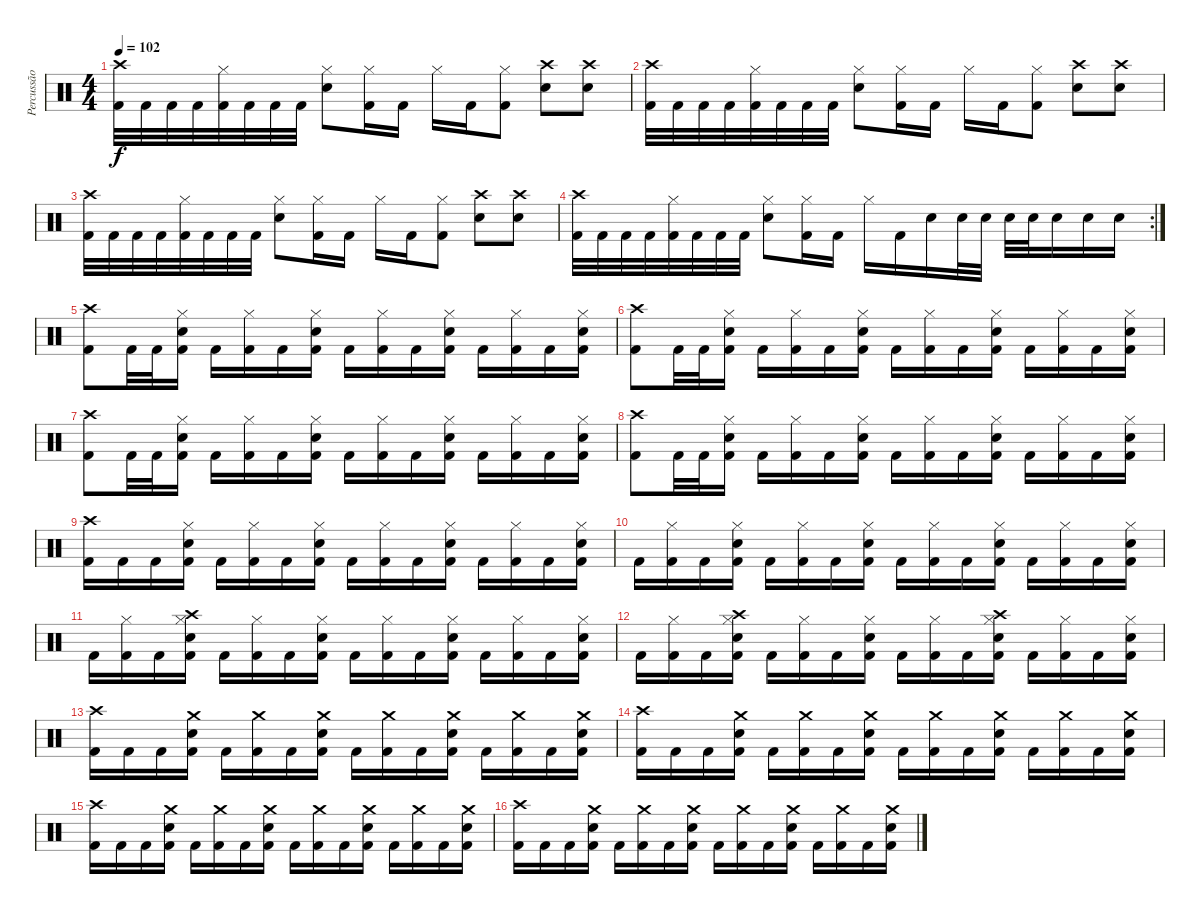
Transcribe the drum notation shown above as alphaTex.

\track ("Percussão" "Percussão") {instrument percussion}
\staff {score}
\articulation defaults
\ts (4 4)
\section ("" "")
\tempo 102
\clef neutral
\ks c
("Crash high (hit)" "Kick (hit) 2").32{dy f} "Kick (hit) 2".32 "Kick (hit) 2".32 "Kick (hit) 2".32 ("Hi-Hat (closed)" "Kick (hit) 2").32 "Kick (hit) 2".32 "Kick (hit) 2".32 "Kick (hit) 2".32 ("Hi-Hat (closed)" "Electric Snare (hit)").8 ("Hi-Hat (closed)" "Kick (hit) 2").16 "Kick (hit) 2".16 "Hi-Hat (closed)".16 "Kick (hit) 2".16 ("Hi-Hat (closed)" "Kick (hit) 2").8 ("Electric Snare (hit)" "Crash high (hit)").8 ("Crash high (hit)" "Electric Snare (hit)").8 |
\section ("" "")
("Crash high (hit)" "Kick (hit) 2").32 "Kick (hit) 2".32 "Kick (hit) 2".32 "Kick (hit) 2".32 ("Hi-Hat (closed)" "Kick (hit) 2").32 "Kick (hit) 2".32 "Kick (hit) 2".32 "Kick (hit) 2".32 ("Hi-Hat (closed)" "Electric Snare (hit)").8 ("Hi-Hat (closed)" "Kick (hit) 2").16 "Kick (hit) 2".16 "Hi-Hat (closed)".16 "Kick (hit) 2".16 ("Hi-Hat (closed)" "Kick (hit) 2").8 ("Electric Snare (hit)" "Crash high (hit)").8 ("Crash high (hit)" "Electric Snare (hit)").8 |
("Crash high (hit)" "Kick (hit) 2").32 "Kick (hit) 2".32 "Kick (hit) 2".32 "Kick (hit) 2".32 ("Hi-Hat (closed)" "Kick (hit) 2").32 "Kick (hit) 2".32 "Kick (hit) 2".32 "Kick (hit) 2".32 ("Hi-Hat (closed)" "Electric Snare (hit)").8 ("Hi-Hat (closed)" "Kick (hit) 2").16 "Kick (hit) 2".16 "Hi-Hat (closed)".16 "Kick (hit) 2".16 ("Hi-Hat (closed)" "Kick (hit) 2").8 ("Electric Snare (hit)" "Crash high (hit)").8 ("Crash high (hit)" "Electric Snare (hit)").8 |
\rc 2
("Crash high (hit)" "Kick (hit) 2").32 "Kick (hit) 2".32 "Kick (hit) 2".32 "Kick (hit) 2".32 ("Hi-Hat (closed)" "Kick (hit) 2").32 "Kick (hit) 2".32 "Kick (hit) 2".32 "Kick (hit) 2".32 ("Hi-Hat (closed)" "Electric Snare (hit)").8 ("Hi-Hat (closed)" "Kick (hit) 2").16 "Kick (hit) 2".16 "Hi-Hat (closed)".16 "Kick (hit) 2".16 "Snare (hit) 2".16 "Snare (hit) 2".32 "Snare (hit) 2".32 "Snare (hit) 2".32 "Snare (hit) 2".32 "Snare (hit) 2".16 "Snare (hit) 2".16 "Snare (hit) 2".16 |
\section ("" "")
("Crash high (hit)" "Kick (hit) 2").8 "Kick (hit) 2".32 "Kick (hit) 2".32 ("Hi-Hat (closed)" "Electric Snare (hit)" "Kick (hit) 2").16 "Kick (hit) 2".16 ("Hi-Hat (closed)" "Kick (hit) 2").16 "Kick (hit) 2".16 ("Hi-Hat (closed)" "Electric Snare (hit)" "Kick (hit) 2").16 "Kick (hit) 2".16 ("Hi-Hat (closed)" "Kick (hit) 2").16 "Kick (hit) 2".16 ("Hi-Hat (closed)" "Electric Snare (hit)" "Kick (hit) 2").16 "Kick (hit) 2".16 ("Hi-Hat (closed)" "Kick (hit) 2").16 "Kick (hit) 2".16 ("Hi-Hat (closed)" "Electric Snare (hit)" "Kick (hit) 2").16 |
("Crash high (hit)" "Kick (hit) 2").8 "Kick (hit) 2".32 "Kick (hit) 2".32 ("Hi-Hat (closed)" "Electric Snare (hit)" "Kick (hit) 2").16 "Kick (hit) 2".16 ("Hi-Hat (closed)" "Kick (hit) 2").16 "Kick (hit) 2".16 ("Hi-Hat (closed)" "Electric Snare (hit)" "Kick (hit) 2").16 "Kick (hit) 2".16 ("Hi-Hat (closed)" "Kick (hit) 2").16 "Kick (hit) 2".16 ("Hi-Hat (closed)" "Electric Snare (hit)" "Kick (hit) 2").16 "Kick (hit) 2".16 ("Hi-Hat (closed)" "Kick (hit) 2").16 "Kick (hit) 2".16 ("Hi-Hat (closed)" "Electric Snare (hit)" "Kick (hit) 2").16 |
("Crash high (hit)" "Kick (hit) 2").8 "Kick (hit) 2".32 "Kick (hit) 2".32 ("Hi-Hat (closed)" "Electric Snare (hit)" "Kick (hit) 2").16 "Kick (hit) 2".16 ("Hi-Hat (closed)" "Kick (hit) 2").16 "Kick (hit) 2".16 ("Hi-Hat (closed)" "Electric Snare (hit)" "Kick (hit) 2").16 "Kick (hit) 2".16 ("Hi-Hat (closed)" "Kick (hit) 2").16 "Kick (hit) 2".16 ("Hi-Hat (closed)" "Electric Snare (hit)" "Kick (hit) 2").16 "Kick (hit) 2".16 ("Hi-Hat (closed)" "Kick (hit) 2").16 "Kick (hit) 2".16 ("Hi-Hat (closed)" "Electric Snare (hit)" "Kick (hit) 2").16 |
("Crash high (hit)" "Kick (hit) 2").8 "Kick (hit) 2".32 "Kick (hit) 2".32 ("Hi-Hat (closed)" "Electric Snare (hit)" "Kick (hit) 2").16 "Kick (hit) 2".16 ("Hi-Hat (closed)" "Kick (hit) 2").16 "Kick (hit) 2".16 ("Hi-Hat (closed)" "Electric Snare (hit)" "Kick (hit) 2").16 "Kick (hit) 2".16 ("Hi-Hat (closed)" "Kick (hit) 2").16 "Kick (hit) 2".16 ("Hi-Hat (closed)" "Electric Snare (hit)" "Kick (hit) 2").16 "Kick (hit) 2".16 ("Hi-Hat (closed)" "Kick (hit) 2").16 "Kick (hit) 2".16 ("Hi-Hat (closed)" "Electric Snare (hit)" "Kick (hit) 2").16 |
("Crash high (hit)" "Kick (hit) 2").16 "Kick (hit) 2".16 "Kick (hit) 2".16 ("Hi-Hat (closed)" "Electric Snare (hit)" "Kick (hit) 2").16 "Kick (hit) 2".16 ("Hi-Hat (closed)" "Kick (hit) 2").16 "Kick (hit) 2".16 ("Hi-Hat (closed)" "Electric Snare (hit)" "Kick (hit) 2").16 "Kick (hit) 2".16 ("Hi-Hat (closed)" "Kick (hit) 2").16 "Kick (hit) 2".16 ("Hi-Hat (closed)" "Electric Snare (hit)" "Kick (hit) 2").16 "Kick (hit) 2".16 ("Hi-Hat (closed)" "Kick (hit) 2").16 "Kick (hit) 2".16 ("Hi-Hat (closed)" "Electric Snare (hit)" "Kick (hit) 2").16 |
"Kick (hit) 2".16 ("Hi-Hat (closed)" "Kick (hit) 2").16 "Kick (hit) 2".16 ("Hi-Hat (closed)" "Electric Snare (hit)" "Kick (hit) 2").16 "Kick (hit) 2".16 ("Hi-Hat (closed)" "Kick (hit) 2").16 "Kick (hit) 2".16 ("Hi-Hat (closed)" "Electric Snare (hit)" "Kick (hit) 2").16 "Kick (hit) 2".16 ("Hi-Hat (closed)" "Kick (hit) 2").16 "Kick (hit) 2".16 ("Hi-Hat (closed)" "Electric Snare (hit)" "Kick (hit) 2").16 "Kick (hit) 2".16 ("Hi-Hat (closed)" "Kick (hit) 2").16 "Kick (hit) 2".16 ("Hi-Hat (closed)" "Electric Snare (hit)" "Kick (hit) 2").16 |
"Kick (hit) 2".16 ("Hi-Hat (closed)" "Kick (hit) 2").16 "Kick (hit) 2".16 ("Hi-Hat (closed)" "Crash high (hit)" "Electric Snare (hit)" "Kick (hit) 2").16 "Kick (hit) 2".16 ("Hi-Hat (closed)" "Kick (hit) 2").16 "Kick (hit) 2".16 ("Hi-Hat (closed)" "Electric Snare (hit)" "Kick (hit) 2").16 "Kick (hit) 2".16 ("Hi-Hat (closed)" "Kick (hit) 2").16 "Kick (hit) 2".16 ("Hi-Hat (closed)" "Electric Snare (hit)" "Kick (hit) 2").16 "Kick (hit) 2".16 ("Hi-Hat (closed)" "Kick (hit) 2").16 "Kick (hit) 2".16 ("Hi-Hat (closed)" "Electric Snare (hit)" "Kick (hit) 2").16 |
"Kick (hit) 2".16 ("Hi-Hat (closed)" "Kick (hit) 2").16 "Kick (hit) 2".16 ("Hi-Hat (closed)" "Crash high (hit)" "Electric Snare (hit)" "Kick (hit) 2").16 "Kick (hit) 2".16 ("Hi-Hat (closed)" "Kick (hit) 2").16 "Kick (hit) 2".16 ("Hi-Hat (closed)" "Electric Snare (hit)" "Kick (hit) 2").16 "Kick (hit) 2".16 ("Hi-Hat (closed)" "Kick (hit) 2").16 "Kick (hit) 2".16 ("Hi-Hat (closed)" "Crash high (hit)" "Electric Snare (hit)" "Kick (hit) 2").16 "Kick (hit) 2".16 ("Hi-Hat (closed)" "Kick (hit) 2").16 "Kick (hit) 2".16 ("Hi-Hat (closed)" "Electric Snare (hit)" "Kick (hit) 2").16 |
\section ("" "")
("Crash high (hit)" "Kick (hit) 2").16 "Kick (hit) 2".16 "Kick (hit) 2".16 ("Crash medium (hit)" "Electric Snare (hit)" "Kick (hit) 2").16 "Kick (hit) 2".16 ("Crash medium (hit)" "Kick (hit) 2").16 "Kick (hit) 2".16 ("Crash medium (hit)" "Electric Snare (hit)" "Kick (hit) 2").16 "Kick (hit) 2".16 ("Crash medium (hit)" "Kick (hit) 2").16 "Kick (hit) 2".16 ("Crash medium (hit)" "Electric Snare (hit)" "Kick (hit) 2").16 "Kick (hit) 2".16 ("Crash medium (hit)" "Kick (hit) 2").16 "Kick (hit) 2".16 ("Crash medium (hit)" "Electric Snare (hit)" "Kick (hit) 2").16 |
("Crash high (hit)" "Kick (hit) 2").16 "Kick (hit) 2".16 "Kick (hit) 2".16 ("Crash medium (hit)" "Electric Snare (hit)" "Kick (hit) 2").16 "Kick (hit) 2".16 ("Crash medium (hit)" "Kick (hit) 2").16 "Kick (hit) 2".16 ("Crash medium (hit)" "Electric Snare (hit)" "Kick (hit) 2").16 "Kick (hit) 2".16 ("Crash medium (hit)" "Kick (hit) 2").16 "Kick (hit) 2".16 ("Crash medium (hit)" "Electric Snare (hit)" "Kick (hit) 2").16 "Kick (hit) 2".16 ("Crash medium (hit)" "Kick (hit) 2").16 "Kick (hit) 2".16 ("Crash medium (hit)" "Electric Snare (hit)" "Kick (hit) 2").16 |
("Crash high (hit)" "Kick (hit) 2").16 "Kick (hit) 2".16 "Kick (hit) 2".16 ("Crash medium (hit)" "Electric Snare (hit)" "Kick (hit) 2").16 "Kick (hit) 2".16 ("Crash medium (hit)" "Kick (hit) 2").16 "Kick (hit) 2".16 ("Crash medium (hit)" "Electric Snare (hit)" "Kick (hit) 2").16 "Kick (hit) 2".16 ("Crash medium (hit)" "Kick (hit) 2").16 "Kick (hit) 2".16 ("Crash medium (hit)" "Electric Snare (hit)" "Kick (hit) 2").16 "Kick (hit) 2".16 ("Crash medium (hit)" "Kick (hit) 2").16 "Kick (hit) 2".16 ("Crash medium (hit)" "Electric Snare (hit)" "Kick (hit) 2").16 |
("Crash high (hit)" "Kick (hit) 2").16 "Kick (hit) 2".16 "Kick (hit) 2".16 ("Crash medium (hit)" "Electric Snare (hit)" "Kick (hit) 2").16 "Kick (hit) 2".16 ("Crash medium (hit)" "Kick (hit) 2").16 "Kick (hit) 2".16 ("Crash medium (hit)" "Electric Snare (hit)" "Kick (hit) 2").16 "Kick (hit) 2".16 ("Crash medium (hit)" "Kick (hit) 2").16 "Kick (hit) 2".16 ("Crash medium (hit)" "Electric Snare (hit)" "Kick (hit) 2").16 "Kick (hit) 2".16 ("Crash medium (hit)" "Kick (hit) 2").16 "Kick (hit) 2".16 ("Crash medium (hit)" "Electric Snare (hit)" "Kick (hit) 2").16
